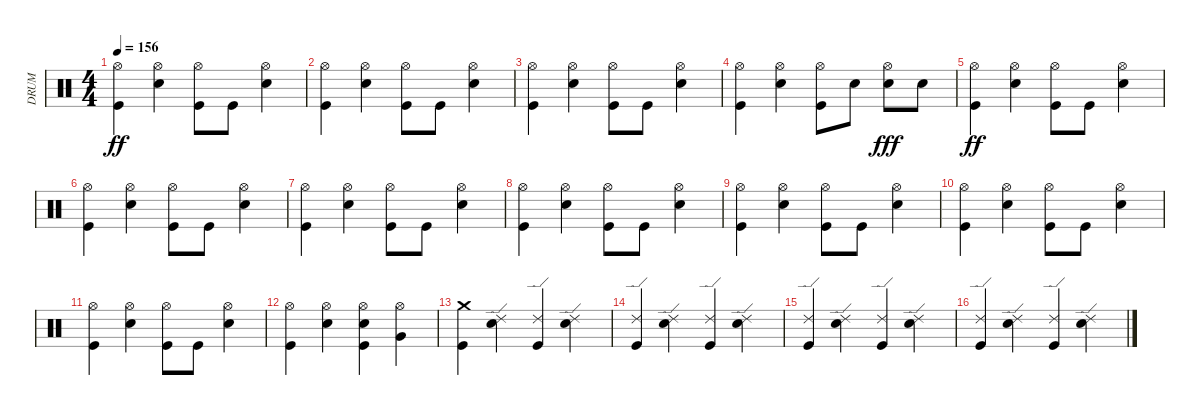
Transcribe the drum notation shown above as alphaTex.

\track ("DRUM" "DRUM") {instrument percussion}
\staff {score}
\articulation defaults
\ts (4 4)
\tempo 156
\clef neutral
\ks c
("Hi-Hat (open)" "Kick (hit)").4{dy ff} ("Hi-Hat (open)" "Snare (hit) 2").4 ("Hi-Hat (open)" "Kick (hit)").8 "Kick (hit)".8 ("Hi-Hat (open)" "Snare (hit) 2").4 |
("Hi-Hat (open)" "Kick (hit)").4 ("Hi-Hat (open)" "Snare (hit) 2").4 ("Hi-Hat (open)" "Kick (hit)").8 "Kick (hit)".8 ("Hi-Hat (open)" "Snare (hit) 2").4 |
("Hi-Hat (open)" "Kick (hit)").4 ("Hi-Hat (open)" "Snare (hit) 2").4 ("Hi-Hat (open)" "Kick (hit)").8 "Kick (hit)".8 ("Hi-Hat (open)" "Snare (hit) 2").4 |
("Hi-Hat (open)" "Kick (hit)").4 ("Hi-Hat (open)" "Snare (hit) 2").4 ("Hi-Hat (open)" "Kick (hit)").8 "Snare (hit) 2".8 ("Hi-Hat (open)" "Snare (hit) 2").8{dy fff} "Snare (hit) 2".8 |
("Hi-Hat (open)" "Kick (hit)").4{dy ff} ("Hi-Hat (open)" "Snare (hit) 2").4 ("Hi-Hat (open)" "Kick (hit)").8 "Kick (hit)".8 ("Hi-Hat (open)" "Snare (hit) 2").4 |
("Hi-Hat (open)" "Kick (hit)").4 ("Hi-Hat (open)" "Snare (hit) 2").4 ("Hi-Hat (open)" "Kick (hit)").8 "Kick (hit)".8 ("Hi-Hat (open)" "Snare (hit) 2").4 |
("Hi-Hat (open)" "Kick (hit)").4 ("Hi-Hat (open)" "Snare (hit) 2").4 ("Hi-Hat (open)" "Kick (hit)").8 "Kick (hit)".8 ("Hi-Hat (open)" "Snare (hit) 2").4 |
("Hi-Hat (open)" "Kick (hit)").4 ("Hi-Hat (open)" "Snare (hit) 2").4 ("Hi-Hat (open)" "Kick (hit)").8 "Kick (hit)".8 ("Hi-Hat (open)" "Snare (hit) 2").4 |
("Hi-Hat (open)" "Kick (hit)").4 ("Hi-Hat (open)" "Snare (hit) 2").4 ("Hi-Hat (open)" "Kick (hit)").8 "Kick (hit)".8 ("Hi-Hat (open)" "Snare (hit) 2").4 |
("Hi-Hat (open)" "Kick (hit)").4 ("Hi-Hat (open)" "Snare (hit) 2").4 ("Hi-Hat (open)" "Kick (hit)").8 "Kick (hit)".8 ("Hi-Hat (open)" "Snare (hit) 2").4 |
("Hi-Hat (open)" "Kick (hit)").4 ("Hi-Hat (open)" "Snare (hit) 2").4 ("Hi-Hat (open)" "Kick (hit)").8 "Kick (hit)".8 ("Hi-Hat (open)" "Snare (hit) 2").4 |
("Hi-Hat (open)" "Kick (hit)").4 ("Hi-Hat (open)" "Snare (hit) 2").4 ("Hi-Hat (open)" "Snare (hit) 2" "Kick (hit)").4 ("Hi-Hat (open)" "Very Low Tom (hit)").4 |
("Crash medium (hit)" "Kick (hit)").4 ("Ride (edge) 2" "Snare (hit) 2").4 ("Ride (edge) 2" "Kick (hit)").4 ("Ride (edge) 2" "Snare (hit) 2").4 |
("Ride (edge) 2" "Kick (hit)").4 ("Ride (edge) 2" "Snare (hit) 2").4 ("Ride (edge) 2" "Kick (hit)").4 ("Ride (edge) 2" "Snare (hit) 2").4 |
("Ride (edge) 2" "Kick (hit)").4 ("Ride (edge) 2" "Snare (hit) 2").4 ("Ride (edge) 2" "Kick (hit)").4 ("Ride (edge) 2" "Snare (hit) 2").4 |
("Ride (edge) 2" "Kick (hit)").4 ("Ride (edge) 2" "Snare (hit) 2").4 ("Ride (edge) 2" "Kick (hit)").4 ("Ride (edge) 2" "Snare (hit) 2").4
